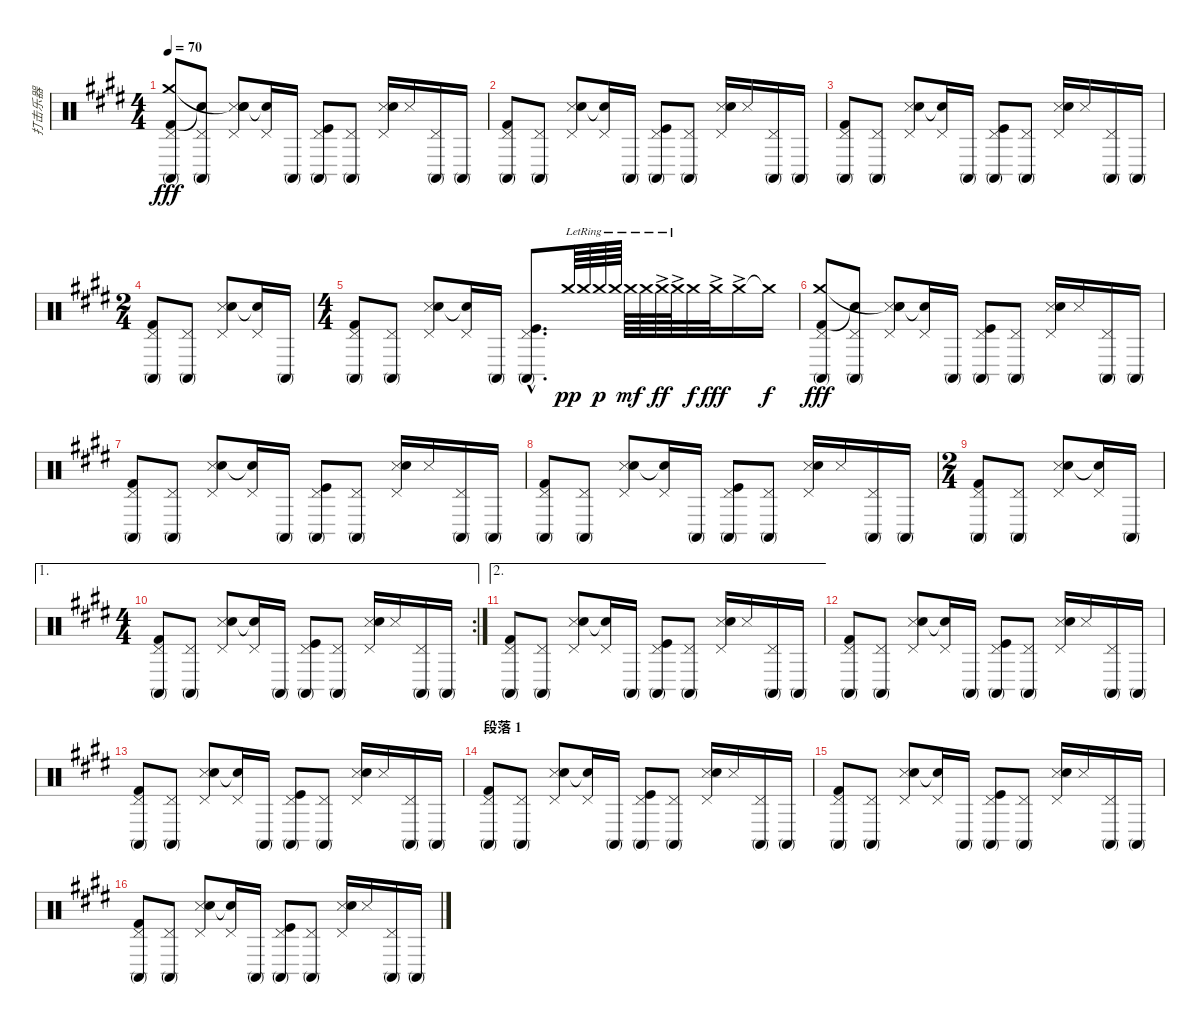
\track ("打击乐器" "打击乐器") {instrument percussion}
\staff {score}
\articulation defaults
\ts (4 4)
\tempo 70
\clef neutral
\ks e
("Conga high (mute)" "Pedal Hi-Hat (hit)" "Kick (hit) 2" "Crash medium (hit)").8{dy fff} ("Conga high (mute)" "Pedal Hi-Hat (hit)" "Snare (hit)"{t}).8 ("Metronome (hit)" "Pedal Hi-Hat (hit)" "Hand Clap (hit)" "Snare (hit)"{t}).8 ("Snare (hit)"{t} "Pedal Hi-Hat (hit)").16 "Conga high (mute)".16 ("Conga high (mute)" "Pedal Hi-Hat (hit)" "Kick (hit)").8 ("Conga high (mute)" "Pedal Hi-Hat (hit)").8 ("Metronome (hit)" "Pedal Hi-Hat (hit)" "Hand Clap (hit)").16 "Metronome (hit)".16 ("Conga high (mute)" "Pedal Hi-Hat (hit)").16 "Conga high (mute)".16 |
("Conga high (mute)" "Pedal Hi-Hat (hit)" "Kick (hit) 2").8 ("Conga high (mute)" "Pedal Hi-Hat (hit)").8 ("Metronome (hit)" "Pedal Hi-Hat (hit)" "Hand Clap (hit)").8 ("Snare (hit)"{t} "Pedal Hi-Hat (hit)").16 "Conga high (mute)".16 ("Conga high (mute)" "Pedal Hi-Hat (hit)" "Kick (hit)").8 ("Conga high (mute)" "Pedal Hi-Hat (hit)").8 ("Metronome (hit)" "Pedal Hi-Hat (hit)" "Hand Clap (hit)").16 "Metronome (hit)".16 ("Conga high (mute)" "Pedal Hi-Hat (hit)").16 "Conga high (mute)".16 |
("Conga high (mute)" "Pedal Hi-Hat (hit)" "Kick (hit) 2").8 ("Conga high (mute)" "Pedal Hi-Hat (hit)").8 ("Metronome (hit)" "Pedal Hi-Hat (hit)" "Hand Clap (hit)").8 ("Snare (hit)"{t} "Pedal Hi-Hat (hit)").16 "Conga high (mute)".16 ("Conga high (mute)" "Pedal Hi-Hat (hit)" "Kick (hit)").8 ("Conga high (mute)" "Pedal Hi-Hat (hit)").8 ("Metronome (hit)" "Pedal Hi-Hat (hit)" "Hand Clap (hit)").16 "Metronome (hit)".16 ("Conga high (mute)" "Pedal Hi-Hat (hit)").16 "Conga high (mute)".16 |
\ts (2 4)
("Conga high (mute)" "Pedal Hi-Hat (hit)" "Kick (hit) 2").8 ("Conga high (mute)" "Pedal Hi-Hat (hit)").8 ("Metronome (hit)" "Pedal Hi-Hat (hit)" "Hand Clap (hit)").8 ("Snare (hit)"{t} "Pedal Hi-Hat (hit)").16 "Conga high (mute)".16 |
\ts (4 4)
("Conga high (mute)" "Pedal Hi-Hat (hit)" "Kick (hit) 2").8 ("Conga high (mute)" "Pedal Hi-Hat (hit)").8 ("Metronome (hit)" "Pedal Hi-Hat (hit)" "Hand Clap (hit)").8 ("Snare (hit)"{t} "Pedal Hi-Hat (hit)").16 "Conga high (mute)".16 ("Conga high (mute)"{hac} "Pedal Hi-Hat (hit)"{hac} "Kick (hit)"{hac}).8{d} "Crash medium (hit)".64{dy pp} "Crash medium (hit)"{lr}.64 "Crash medium (hit)"{lr}.64{dy p} "Crash medium (hit)"{lr}.64 "Crash medium (hit)"{lr}.64{dy mf} "Crash medium (hit)"{lr}.64 "Crash medium (hit)"{ac lr}.64{dy ff} "Crash medium (hit)"{ac lr}.64 "Crash medium (hit)".32{dy f} "Crash medium (hit)"{ac}.32{dy fff} "Crash medium (hit)"{ac}.16 "Crash medium (hit)"{t}.16{dy f} |
("Conga high (mute)" "Pedal Hi-Hat (hit)" "Kick (hit) 2" "Crash medium (hit)").8{dy fff} ("Conga high (mute)" "Pedal Hi-Hat (hit)" "Snare (hit)"{t}).8 ("Metronome (hit)" "Pedal Hi-Hat (hit)" "Hand Clap (hit)" "Snare (hit)"{t}).8 ("Snare (hit)"{t} "Pedal Hi-Hat (hit)").16 "Conga high (mute)".16 ("Conga high (mute)" "Pedal Hi-Hat (hit)" "Kick (hit)").8 ("Conga high (mute)" "Pedal Hi-Hat (hit)").8 ("Metronome (hit)" "Pedal Hi-Hat (hit)" "Hand Clap (hit)").16 "Metronome (hit)".16 ("Conga high (mute)" "Pedal Hi-Hat (hit)").16 "Conga high (mute)".16 |
("Conga high (mute)" "Pedal Hi-Hat (hit)" "Kick (hit) 2").8 ("Conga high (mute)" "Pedal Hi-Hat (hit)").8 ("Metronome (hit)" "Pedal Hi-Hat (hit)" "Hand Clap (hit)").8 ("Snare (hit)"{t} "Pedal Hi-Hat (hit)").16 "Conga high (mute)".16 ("Conga high (mute)" "Pedal Hi-Hat (hit)" "Kick (hit)").8 ("Conga high (mute)" "Pedal Hi-Hat (hit)").8 ("Metronome (hit)" "Pedal Hi-Hat (hit)" "Hand Clap (hit)").16 "Metronome (hit)".16 ("Conga high (mute)" "Pedal Hi-Hat (hit)").16 "Conga high (mute)".16 |
("Conga high (mute)" "Pedal Hi-Hat (hit)" "Kick (hit) 2").8 ("Conga high (mute)" "Pedal Hi-Hat (hit)").8 ("Metronome (hit)" "Pedal Hi-Hat (hit)" "Hand Clap (hit)").8 ("Snare (hit)"{t} "Pedal Hi-Hat (hit)").16 "Conga high (mute)".16 ("Conga high (mute)" "Pedal Hi-Hat (hit)" "Kick (hit)").8 ("Conga high (mute)" "Pedal Hi-Hat (hit)").8 ("Metronome (hit)" "Pedal Hi-Hat (hit)" "Hand Clap (hit)").16 "Metronome (hit)".16 ("Conga high (mute)" "Pedal Hi-Hat (hit)").16 "Conga high (mute)".16 |
\ts (2 4)
("Conga high (mute)" "Pedal Hi-Hat (hit)" "Kick (hit) 2").8 ("Conga high (mute)" "Pedal Hi-Hat (hit)").8 ("Metronome (hit)" "Pedal Hi-Hat (hit)" "Hand Clap (hit)").8 ("Snare (hit)"{t} "Pedal Hi-Hat (hit)").16 "Conga high (mute)".16 |
\ae 1
\rc 2
\ts (4 4)
("Conga high (mute)" "Pedal Hi-Hat (hit)" "Kick (hit) 2").8 ("Conga high (mute)" "Pedal Hi-Hat (hit)").8 ("Metronome (hit)" "Pedal Hi-Hat (hit)" "Hand Clap (hit)").8 ("Snare (hit)"{t} "Pedal Hi-Hat (hit)").16 "Conga high (mute)".16 ("Conga high (mute)" "Pedal Hi-Hat (hit)" "Kick (hit)").8 ("Conga high (mute)" "Pedal Hi-Hat (hit)").8 ("Metronome (hit)" "Pedal Hi-Hat (hit)" "Hand Clap (hit)").16 "Metronome (hit)".16 ("Conga high (mute)" "Pedal Hi-Hat (hit)").16 "Conga high (mute)".16 |
\ae 2
("Conga high (mute)" "Pedal Hi-Hat (hit)" "Kick (hit) 2").8 ("Conga high (mute)" "Pedal Hi-Hat (hit)").8 ("Metronome (hit)" "Pedal Hi-Hat (hit)" "Hand Clap (hit)").8 ("Snare (hit)"{t} "Pedal Hi-Hat (hit)").16 "Conga high (mute)".16 ("Conga high (mute)" "Pedal Hi-Hat (hit)" "Kick (hit)").8 ("Conga high (mute)" "Pedal Hi-Hat (hit)").8 ("Metronome (hit)" "Pedal Hi-Hat (hit)" "Hand Clap (hit)").16 "Metronome (hit)".16 ("Conga high (mute)" "Pedal Hi-Hat (hit)").16 "Conga high (mute)".16 |
("Conga high (mute)" "Pedal Hi-Hat (hit)" "Kick (hit) 2").8 ("Conga high (mute)" "Pedal Hi-Hat (hit)").8 ("Metronome (hit)" "Pedal Hi-Hat (hit)" "Hand Clap (hit)").8 ("Snare (hit)"{t} "Pedal Hi-Hat (hit)").16 "Conga high (mute)".16 ("Conga high (mute)" "Pedal Hi-Hat (hit)" "Kick (hit)").8 ("Conga high (mute)" "Pedal Hi-Hat (hit)").8 ("Metronome (hit)" "Pedal Hi-Hat (hit)" "Hand Clap (hit)").16 "Metronome (hit)".16 ("Conga high (mute)" "Pedal Hi-Hat (hit)").16 "Conga high (mute)".16 |
("Conga high (mute)" "Pedal Hi-Hat (hit)" "Kick (hit) 2").8 ("Conga high (mute)" "Pedal Hi-Hat (hit)").8 ("Metronome (hit)" "Pedal Hi-Hat (hit)" "Hand Clap (hit)").8 ("Snare (hit)"{t} "Pedal Hi-Hat (hit)").16 "Conga high (mute)".16 ("Conga high (mute)" "Pedal Hi-Hat (hit)" "Kick (hit)").8 ("Conga high (mute)" "Pedal Hi-Hat (hit)").8 ("Metronome (hit)" "Pedal Hi-Hat (hit)" "Hand Clap (hit)").16 "Metronome (hit)".16 ("Conga high (mute)" "Pedal Hi-Hat (hit)").16 "Conga high (mute)".16 |
\section ("" "段落 1")
("Conga high (mute)" "Pedal Hi-Hat (hit)" "Kick (hit) 2").8 ("Conga high (mute)" "Pedal Hi-Hat (hit)").8 ("Metronome (hit)" "Pedal Hi-Hat (hit)" "Hand Clap (hit)").8 ("Snare (hit)"{t} "Pedal Hi-Hat (hit)").16 "Conga high (mute)".16 ("Conga high (mute)" "Pedal Hi-Hat (hit)" "Kick (hit)").8 ("Conga high (mute)" "Pedal Hi-Hat (hit)").8 ("Metronome (hit)" "Pedal Hi-Hat (hit)" "Hand Clap (hit)").16 "Metronome (hit)".16 ("Conga high (mute)" "Pedal Hi-Hat (hit)").16 "Conga high (mute)".16 |
("Conga high (mute)" "Pedal Hi-Hat (hit)" "Kick (hit) 2").8 ("Conga high (mute)" "Pedal Hi-Hat (hit)").8 ("Metronome (hit)" "Pedal Hi-Hat (hit)" "Hand Clap (hit)").8 ("Snare (hit)"{t} "Pedal Hi-Hat (hit)").16 "Conga high (mute)".16 ("Conga high (mute)" "Pedal Hi-Hat (hit)" "Kick (hit)").8 ("Conga high (mute)" "Pedal Hi-Hat (hit)").8 ("Metronome (hit)" "Pedal Hi-Hat (hit)" "Hand Clap (hit)").16 "Metronome (hit)".16 ("Conga high (mute)" "Pedal Hi-Hat (hit)").16 "Conga high (mute)".16 |
("Conga high (mute)" "Pedal Hi-Hat (hit)" "Kick (hit) 2").8 ("Conga high (mute)" "Pedal Hi-Hat (hit)").8 ("Metronome (hit)" "Pedal Hi-Hat (hit)" "Hand Clap (hit)").8 ("Snare (hit)"{t} "Pedal Hi-Hat (hit)").16 "Conga high (mute)".16 ("Conga high (mute)" "Pedal Hi-Hat (hit)" "Kick (hit)").8 ("Conga high (mute)" "Pedal Hi-Hat (hit)").8 ("Metronome (hit)" "Pedal Hi-Hat (hit)" "Hand Clap (hit)").16 "Metronome (hit)".16 ("Conga high (mute)" "Pedal Hi-Hat (hit)").16 "Conga high (mute)".16
